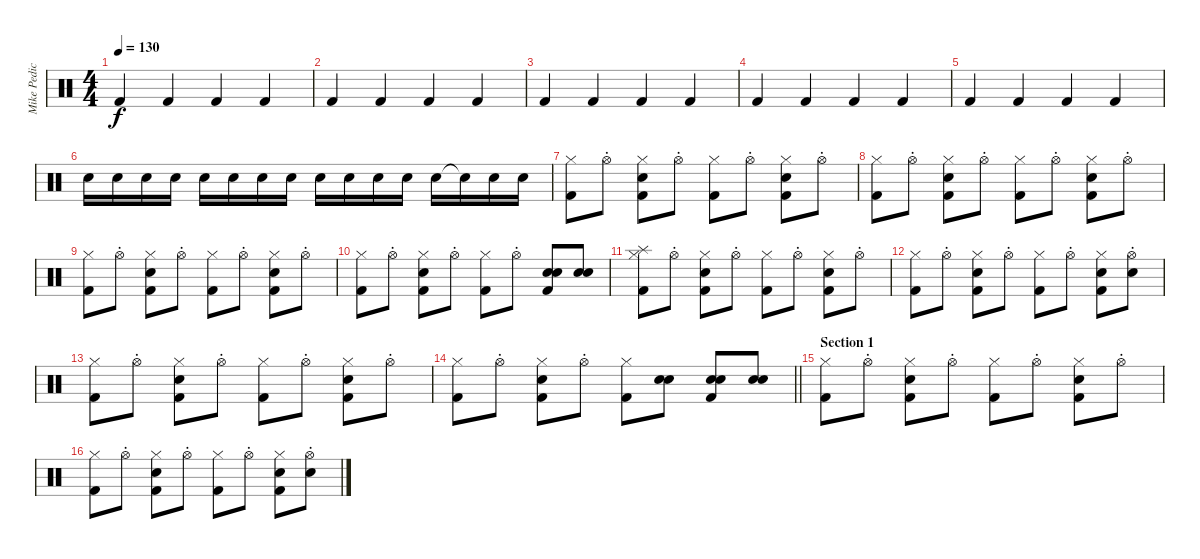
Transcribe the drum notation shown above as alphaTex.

\track ("Mike Pedicone - Drum" "Mike Pedic") {instrument percussion}
\staff {score}
\articulation defaults
\ts (4 4)
\tempo 130
\clef neutral
\ks c "Kick (hit) 2".4{dy f} "Kick (hit) 2".4 "Kick (hit) 2".4 "Kick (hit) 2".4
|
"Kick (hit) 2".4 "Kick (hit) 2".4 "Kick (hit) 2".4 "Kick (hit) 2".4 |
"Kick (hit) 2".4 "Kick (hit) 2".4 "Kick (hit) 2".4 "Kick (hit) 2".4 |
"Kick (hit) 2".4 "Kick (hit) 2".4 "Kick (hit) 2".4 "Kick (hit) 2".4 |
"Kick (hit) 2".4 "Kick (hit) 2".4 "Kick (hit) 2".4 "Kick (hit) 2".4 |
"Electric Snare (hit)".16 "Electric Snare (hit)".16 "Electric Snare (hit)".16 "Electric Snare (hit)".16 "Electric Snare (hit)".16 "Electric Snare (hit)".16 "Electric Snare (hit)".16 "Electric Snare (hit)".16 "Electric Snare (hit)".16 "Electric Snare (hit)".16 "Electric Snare (hit)".16 "Electric Snare (hit)".16 "Electric Snare (hit)".16 "Electric Snare (hit)"{t}.16 "Electric Snare (hit)".16 "Electric Snare (hit)".16 |
("Hi-Hat (closed)" "Kick (hit) 2").8 "Hi-Hat (open)"{st}.8 ("Hi-Hat (closed)" "Electric Snare (hit)" "Kick (hit) 2").8 "Hi-Hat (open)"{st}.8 ("Hi-Hat (closed)" "Kick (hit) 2").8 "Hi-Hat (open)"{st}.8 ("Hi-Hat (closed)" "Electric Snare (hit)" "Kick (hit) 2").8 "Hi-Hat (open)"{st}.8 |
("Hi-Hat (closed)" "Kick (hit) 2").8 "Hi-Hat (open)"{st}.8 ("Hi-Hat (closed)" "Electric Snare (hit)" "Kick (hit) 2").8 "Hi-Hat (open)"{st}.8 ("Hi-Hat (closed)" "Kick (hit) 2").8 "Hi-Hat (open)"{st}.8 ("Hi-Hat (closed)" "Electric Snare (hit)" "Kick (hit) 2").8 "Hi-Hat (open)"{st}.8 |
("Hi-Hat (closed)" "Kick (hit) 2").8 "Hi-Hat (open)"{st}.8 ("Hi-Hat (closed)" "Electric Snare (hit)" "Kick (hit) 2").8 "Hi-Hat (open)"{st}.8 ("Hi-Hat (closed)" "Kick (hit) 2").8 "Hi-Hat (open)"{st}.8 ("Hi-Hat (closed)" "Electric Snare (hit)" "Kick (hit) 2").8 "Hi-Hat (open)"{st}.8 |
("Hi-Hat (closed)" "Kick (hit) 2").8 "Hi-Hat (open)"{st}.8 ("Hi-Hat (closed)" "Electric Snare (hit)" "Kick (hit) 2").8 "Hi-Hat (open)"{st}.8 ("Hi-Hat (closed)" "Kick (hit) 2").8 "Hi-Hat (open)"{st}.8 ("Hand Clap (hit)" "Electric Snare (hit)" "Kick (hit) 2").8 ("Hand Clap (hit)" "Electric Snare (hit)").8 |
("Hi-Hat (closed)" "Splash (hit)" "Kick (hit) 2").8 "Hi-Hat (open)"{st}.8 ("Hi-Hat (closed)" "Electric Snare (hit)" "Kick (hit) 2").8 "Hi-Hat (open)"{st}.8 ("Hi-Hat (closed)" "Kick (hit) 2").8 "Hi-Hat (open)"{st}.8 ("Hi-Hat (closed)" "Electric Snare (hit)" "Kick (hit) 2").8 "Hi-Hat (open)"{st}.8 |
("Hi-Hat (closed)" "Kick (hit) 2").8 "Hi-Hat (open)"{st}.8 ("Hi-Hat (closed)" "Electric Snare (hit)" "Kick (hit) 2").8 "Hi-Hat (open)"{st}.8 ("Hi-Hat (closed)" "Kick (hit) 2").8 "Hi-Hat (open)"{st}.8 ("Hi-Hat (closed)" "Electric Snare (hit)" "Kick (hit) 2").8 ("Hi-Hat (open)"{st} "Electric Snare (hit)").8 |
("Hi-Hat (closed)" "Kick (hit) 2").8 "Hi-Hat (open)"{st}.8 ("Hi-Hat (closed)" "Electric Snare (hit)" "Kick (hit) 2").8 "Hi-Hat (open)"{st}.8 ("Hi-Hat (closed)" "Kick (hit) 2").8 "Hi-Hat (open)"{st}.8 ("Hi-Hat (closed)" "Electric Snare (hit)" "Kick (hit) 2").8 "Hi-Hat (open)"{st}.8 |
\barLineRight lightlight
("Hi-Hat (closed)" "Kick (hit) 2").8 "Hi-Hat (open)"{st}.8 ("Hi-Hat (closed)" "Electric Snare (hit)" "Kick (hit) 2").8 "Hi-Hat (open)"{st}.8 ("Hi-Hat (closed)" "Kick (hit) 2").8 ("Hand Clap (hit)" "Electric Snare (hit)").8 ("Hand Clap (hit)" "Electric Snare (hit)" "Kick (hit) 2").8 ("Hand Clap (hit)" "Electric Snare (hit)").8 |
\section ("" "Section 1")
("Hi-Hat (closed)" "Kick (hit) 2").8 "Hi-Hat (open)"{st}.8 ("Hi-Hat (closed)" "Electric Snare (hit)" "Kick (hit) 2").8 "Hi-Hat (open)"{st}.8 ("Hi-Hat (closed)" "Kick (hit) 2").8 "Hi-Hat (open)"{st}.8 ("Hi-Hat (closed)" "Electric Snare (hit)" "Kick (hit) 2").8 "Hi-Hat (open)"{st}.8 |
("Hi-Hat (closed)" "Kick (hit) 2").8 "Hi-Hat (open)"{st}.8 ("Hi-Hat (closed)" "Electric Snare (hit)" "Kick (hit) 2").8 "Hi-Hat (open)"{st}.8 ("Hi-Hat (closed)" "Kick (hit) 2").8 "Hi-Hat (open)"{st}.8 ("Hi-Hat (closed)" "Electric Snare (hit)" "Kick (hit) 2").8 ("Hi-Hat (open)"{st} "Electric Snare (hit)").8
